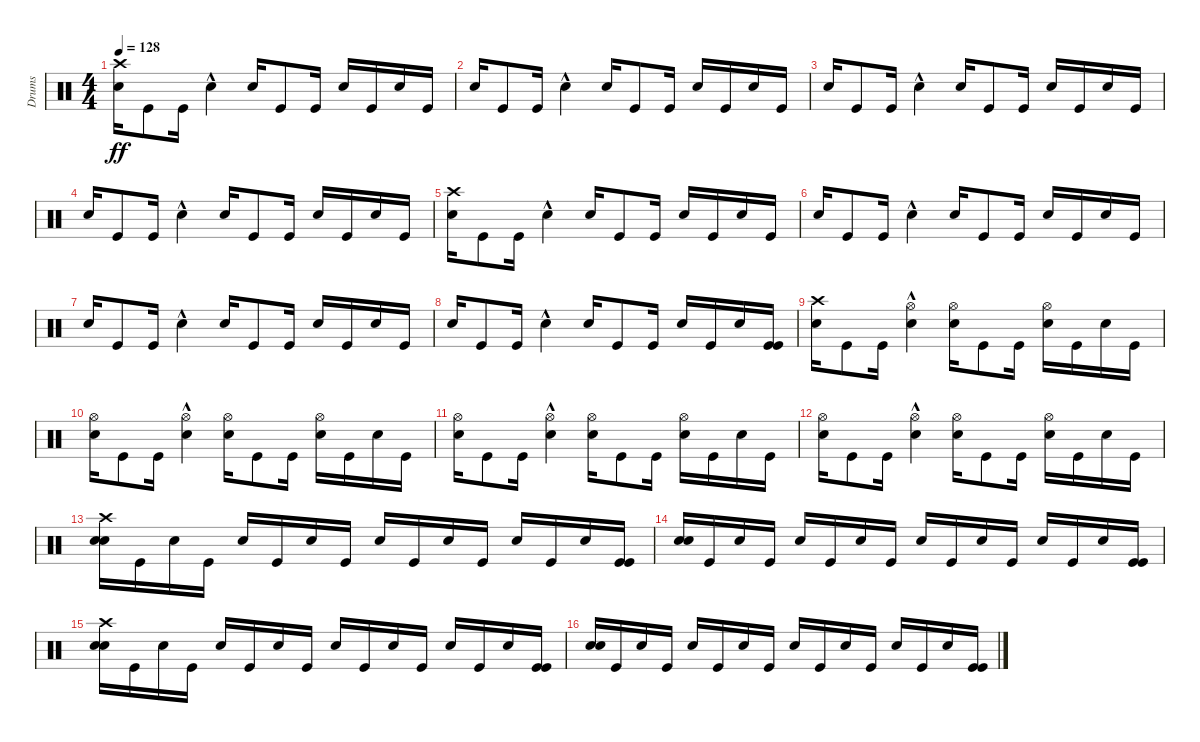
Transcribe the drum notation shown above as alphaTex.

\track ("Drums" "Drums") {instrument percussion}
\staff {score}
\articulation defaults
\ts (4 4)
\tempo 128
\clef neutral
\ks c
("Snare (hit) 2" "Crash high (hit)").16{dy ff} "Kick (hit)".8 "Kick (hit)".16 "Snare (hit) 2"{hac}.4 "Snare (hit) 2".16 "Kick (hit)".8 "Kick (hit)".16 "Snare (hit) 2".16 "Kick (hit)".16 "Snare (hit) 2".16 "Kick (hit)".16 |
"Snare (hit) 2".16 "Kick (hit)".8 "Kick (hit)".16 "Snare (hit) 2"{hac}.4 "Snare (hit) 2".16 "Kick (hit)".8 "Kick (hit)".16 "Snare (hit) 2".16 "Kick (hit)".16 "Snare (hit) 2".16 "Kick (hit)".16 |
"Snare (hit) 2".16 "Kick (hit)".8 "Kick (hit)".16 "Snare (hit) 2"{hac}.4 "Snare (hit) 2".16 "Kick (hit)".8 "Kick (hit)".16 "Snare (hit) 2".16 "Kick (hit)".16 "Snare (hit) 2".16 "Kick (hit)".16 |
"Snare (hit) 2".16 "Kick (hit)".8 "Kick (hit)".16 "Snare (hit) 2"{hac}.4 "Snare (hit) 2".16 "Kick (hit)".8 "Kick (hit)".16 "Snare (hit) 2".16 "Kick (hit)".16 "Snare (hit) 2".16 "Kick (hit)".16 |
("Snare (hit) 2" "Crash high (hit)").16 "Kick (hit)".8 "Kick (hit)".16 "Snare (hit) 2"{hac}.4 "Snare (hit) 2".16 "Kick (hit)".8 "Kick (hit)".16 "Snare (hit) 2".16 "Kick (hit)".16 "Snare (hit) 2".16 "Kick (hit)".16 |
"Snare (hit) 2".16 "Kick (hit)".8 "Kick (hit)".16 "Snare (hit) 2"{hac}.4 "Snare (hit) 2".16 "Kick (hit)".8 "Kick (hit)".16 "Snare (hit) 2".16 "Kick (hit)".16 "Snare (hit) 2".16 "Kick (hit)".16 |
"Snare (hit) 2".16 "Kick (hit)".8 "Kick (hit)".16 "Snare (hit) 2"{hac}.4 "Snare (hit) 2".16 "Kick (hit)".8 "Kick (hit)".16 "Snare (hit) 2".16 "Kick (hit)".16 "Snare (hit) 2".16 "Kick (hit)".16 |
"Snare (hit) 2".16 "Kick (hit)".8 "Kick (hit)".16 "Snare (hit) 2"{hac}.4 "Snare (hit) 2".16 "Kick (hit)".8 "Kick (hit)".16 "Snare (hit) 2".16 "Kick (hit)".16 "Snare (hit) 2".16 ("Kick (hit)" "Kick (hit)").16 |
("Snare (hit) 2" "Crash high (hit)").16 "Kick (hit)".8 "Kick (hit)".16 ("Snare (hit) 2"{hac} "Hi-Hat (open)"{hac}).4 ("Snare (hit) 2" "Hi-Hat (open)").16 "Kick (hit)".8 "Kick (hit)".16 ("Snare (hit) 2" "Hi-Hat (open)").16 "Kick (hit)".16 "Snare (hit) 2".16 "Kick (hit)".16 |
("Snare (hit) 2" "Hi-Hat (open)").16 "Kick (hit)".8 "Kick (hit)".16 ("Snare (hit) 2"{hac} "Hi-Hat (open)"{hac}).4 ("Snare (hit) 2" "Hi-Hat (open)").16 "Kick (hit)".8 "Kick (hit)".16 ("Snare (hit) 2" "Hi-Hat (open)").16 "Kick (hit)".16 "Snare (hit) 2".16 "Kick (hit)".16 |
("Snare (hit) 2" "Hi-Hat (open)").16 "Kick (hit)".8 "Kick (hit)".16 ("Snare (hit) 2"{hac} "Hi-Hat (open)"{hac}).4 ("Snare (hit) 2" "Hi-Hat (open)").16 "Kick (hit)".8 "Kick (hit)".16 ("Snare (hit) 2" "Hi-Hat (open)").16 "Kick (hit)".16 "Snare (hit) 2".16 "Kick (hit)".16 |
("Snare (hit) 2" "Hi-Hat (open)").16 "Kick (hit)".8 "Kick (hit)".16 ("Snare (hit) 2"{hac} "Hi-Hat (open)"{hac}).4 ("Snare (hit) 2" "Hi-Hat (open)").16 "Kick (hit)".8 "Kick (hit)".16 ("Snare (hit) 2" "Hi-Hat (open)").16 "Kick (hit)".16 "Snare (hit) 2".16 "Kick (hit)".16 |
("Snare (hit) 2" "Crash high (hit)" "Snare (hit) 2").16 "Kick (hit)".16 "Snare (hit) 2".16 "Kick (hit)".16 "Snare (hit) 2".16 "Kick (hit)".16 "Snare (hit) 2".16 "Kick (hit)".16 "Snare (hit) 2".16 "Kick (hit)".16 "Snare (hit) 2".16 "Kick (hit)".16 "Snare (hit) 2".16 "Kick (hit)".16 "Snare (hit) 2".16 ("Kick (hit)" "Kick (hit)").16 |
("Snare (hit) 2" "Snare (hit) 2").16 "Kick (hit)".16 "Snare (hit) 2".16 "Kick (hit)".16 "Snare (hit) 2".16 "Kick (hit)".16 "Snare (hit) 2".16 "Kick (hit)".16 "Snare (hit) 2".16 "Kick (hit)".16 "Snare (hit) 2".16 "Kick (hit)".16 "Snare (hit) 2".16 "Kick (hit)".16 "Snare (hit) 2".16 ("Kick (hit)" "Kick (hit)").16 |
("Snare (hit) 2" "Crash high (hit)" "Snare (hit) 2").16 "Kick (hit)".16 "Snare (hit) 2".16 "Kick (hit)".16 "Snare (hit) 2".16 "Kick (hit)".16 "Snare (hit) 2".16 "Kick (hit)".16 "Snare (hit) 2".16 "Kick (hit)".16 "Snare (hit) 2".16 "Kick (hit)".16 "Snare (hit) 2".16 "Kick (hit)".16 "Snare (hit) 2".16 ("Kick (hit)" "Kick (hit)").16 |
("Snare (hit) 2" "Snare (hit) 2").16 "Kick (hit)".16 "Snare (hit) 2".16 "Kick (hit)".16 "Snare (hit) 2".16 "Kick (hit)".16 "Snare (hit) 2".16 "Kick (hit)".16 "Snare (hit) 2".16 "Kick (hit)".16 "Snare (hit) 2".16 "Kick (hit)".16 "Snare (hit) 2".16 "Kick (hit)".16 "Snare (hit) 2".16 ("Kick (hit)" "Kick (hit)").16
